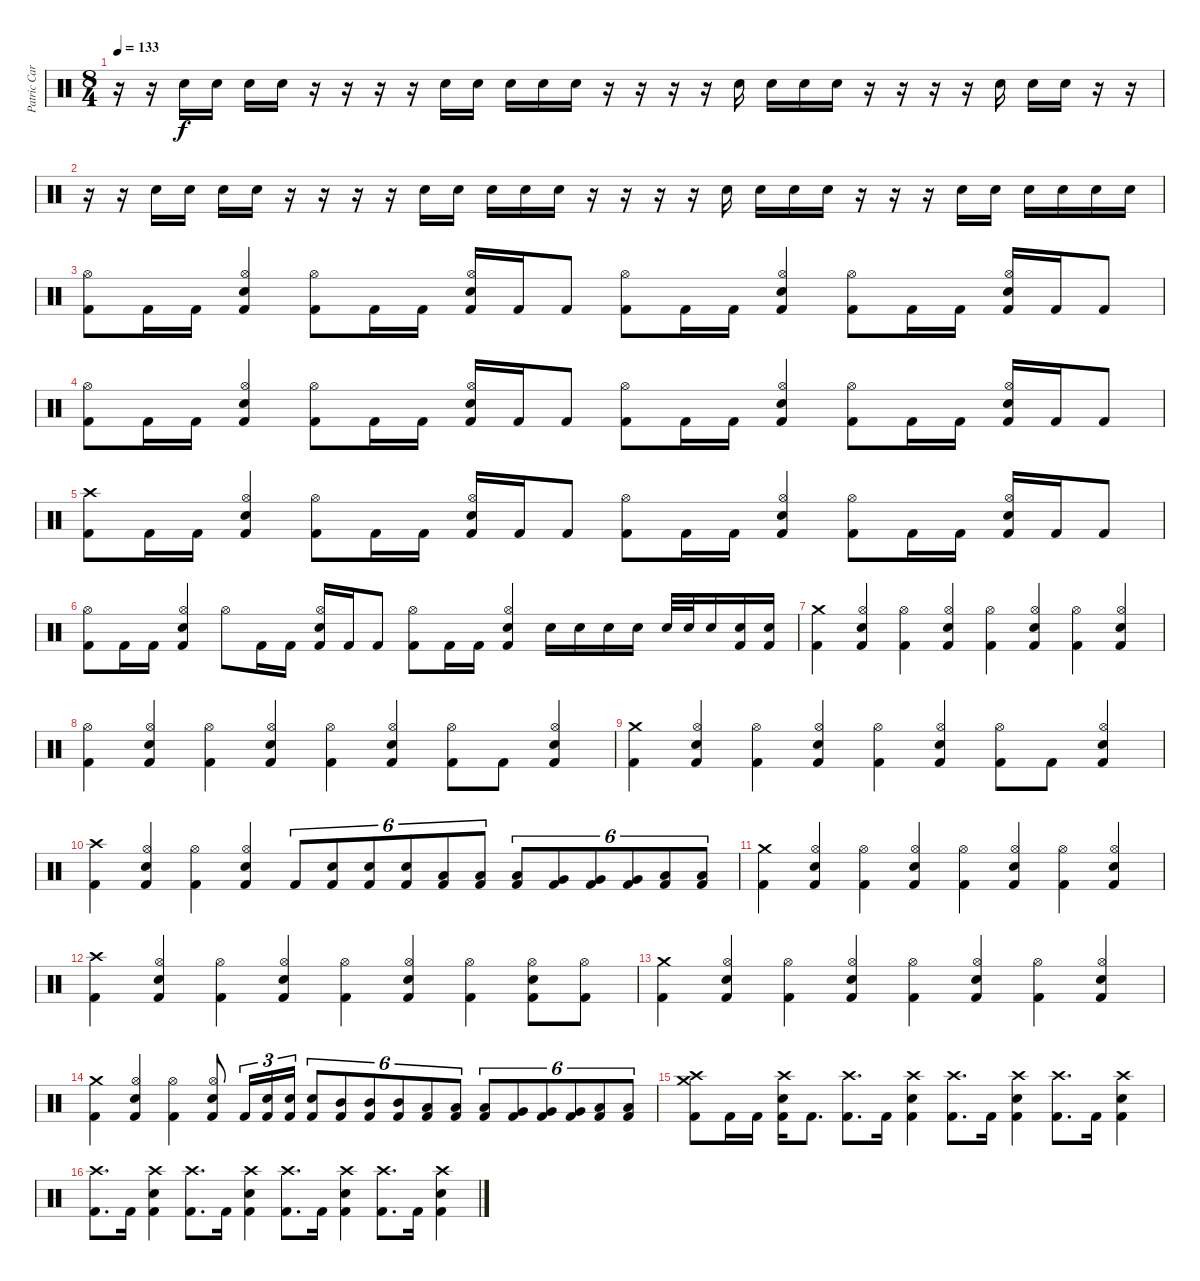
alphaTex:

\track ("Patric Carlsson" "Patric Car") {instrument percussion}
\staff {score}
\articulation defaults
\ts (8 4)
\tempo 133
\clef neutral
\ks c
r.16{dy f} r.16 "Snare (hit) 2".16 "Snare (hit) 2".16 "Snare (hit) 2".16 "Snare (hit) 2".16 r.16 r.16 r.16 r.16 "Snare (hit) 2".16 "Snare (hit) 2".16 "Snare (hit) 2".16 "Snare (hit) 2".16 "Snare (hit) 2".16 r.16 r.16 r.16 r.16 "Snare (hit) 2".16 "Snare (hit) 2".16 "Snare (hit) 2".16 "Snare (hit) 2".16 r.16 r.16 r.16 r.16 "Snare (hit) 2".16 "Snare (hit) 2".16 "Snare (hit) 2".16 r.16 r.16 |
r.16 r.16 "Snare (hit) 2".16 "Snare (hit) 2".16 "Snare (hit) 2".16 "Snare (hit) 2".16 r.16 r.16 r.16 r.16 "Snare (hit) 2".16 "Snare (hit) 2".16 "Snare (hit) 2".16 "Snare (hit) 2".16 "Snare (hit) 2".16 r.16 r.16 r.16 r.16 "Snare (hit) 2".16 "Snare (hit) 2".16 "Snare (hit) 2".16 "Snare (hit) 2".16 r.16 r.16 r.16 "Snare (hit) 2".16 "Snare (hit) 2".16 "Snare (hit) 2".16 "Snare (hit) 2".16 "Snare (hit) 2".16 "Snare (hit) 2".16 |
("Hi-Hat (open)" "Kick (hit) 2").8 "Kick (hit) 2".16 "Kick (hit) 2".16 ("Hi-Hat (open)" "Snare (hit) 2" "Kick (hit) 2").4 ("Hi-Hat (open)" "Kick (hit) 2").8 "Kick (hit) 2".16 "Kick (hit) 2".16 ("Hi-Hat (open)" "Snare (hit) 2" "Kick (hit) 2").16 "Kick (hit) 2".16 "Kick (hit) 2".8 ("Hi-Hat (open)" "Kick (hit) 2").8 "Kick (hit) 2".16 "Kick (hit) 2".16 ("Hi-Hat (open)" "Snare (hit) 2" "Kick (hit) 2").4 ("Hi-Hat (open)" "Kick (hit) 2").8 "Kick (hit) 2".16 "Kick (hit) 2".16 ("Hi-Hat (open)" "Snare (hit) 2" "Kick (hit) 2").16 "Kick (hit) 2".16 "Kick (hit) 2".8 |
("Hi-Hat (open)" "Kick (hit) 2").8 "Kick (hit) 2".16 "Kick (hit) 2".16 ("Hi-Hat (open)" "Snare (hit) 2" "Kick (hit) 2").4 ("Hi-Hat (open)" "Kick (hit) 2").8 "Kick (hit) 2".16 "Kick (hit) 2".16 ("Hi-Hat (open)" "Snare (hit) 2" "Kick (hit) 2").16 "Kick (hit) 2".16 "Kick (hit) 2".8 ("Hi-Hat (open)" "Kick (hit) 2").8 "Kick (hit) 2".16 "Kick (hit) 2".16 ("Hi-Hat (open)" "Snare (hit) 2" "Kick (hit) 2").4 ("Hi-Hat (open)" "Kick (hit) 2").8 "Kick (hit) 2".16 "Kick (hit) 2".16 ("Hi-Hat (open)" "Snare (hit) 2" "Kick (hit) 2").16 "Kick (hit) 2".16 "Kick (hit) 2".8 |
("Crash high (hit)" "Kick (hit) 2").8 "Kick (hit) 2".16 "Kick (hit) 2".16 ("Hi-Hat (open)" "Snare (hit) 2" "Kick (hit) 2").4 ("Hi-Hat (open)" "Kick (hit) 2").8 "Kick (hit) 2".16 "Kick (hit) 2".16 ("Hi-Hat (open)" "Snare (hit) 2" "Kick (hit) 2").16 "Kick (hit) 2".16 "Kick (hit) 2".8 ("Hi-Hat (open)" "Kick (hit) 2").8 "Kick (hit) 2".16 "Kick (hit) 2".16 ("Hi-Hat (open)" "Snare (hit) 2" "Kick (hit) 2").4 ("Hi-Hat (open)" "Kick (hit) 2").8 "Kick (hit) 2".16 "Kick (hit) 2".16 ("Hi-Hat (open)" "Snare (hit) 2" "Kick (hit) 2").16 "Kick (hit) 2".16 "Kick (hit) 2".8 |
("Hi-Hat (open)" "Kick (hit) 2").8 "Kick (hit) 2".16 "Kick (hit) 2".16 ("Hi-Hat (open)" "Snare (hit) 2" "Kick (hit) 2").4 "Hi-Hat (open)".8 "Kick (hit) 2".16 "Kick (hit) 2".16 ("Hi-Hat (open)" "Snare (hit) 2" "Kick (hit) 2").16 "Kick (hit) 2".16 "Kick (hit) 2".8 ("Hi-Hat (open)" "Kick (hit) 2").8 "Kick (hit) 2".16 "Kick (hit) 2".16 ("Hi-Hat (open)" "Snare (hit) 2" "Kick (hit) 2").4 "Snare (hit) 2".16 "Snare (hit) 2".16 "Snare (hit) 2".16 "Snare (hit) 2".16 "Snare (hit) 2".32 "Snare (hit) 2".32 "Snare (hit) 2".16 ("Snare (hit) 2" "Kick (hit) 2").16 ("Snare (hit) 2" "Kick (hit) 2").16 |
("Crash medium (hit)" "Kick (hit) 2").4 ("Hi-Hat (open)" "Snare (hit) 2" "Kick (hit) 2").4 ("Hi-Hat (open)" "Kick (hit) 2").4 ("Hi-Hat (open)" "Snare (hit) 2" "Kick (hit) 2").4 ("Hi-Hat (open)" "Kick (hit) 2").4 ("Hi-Hat (open)" "Snare (hit) 2" "Kick (hit) 2").4 ("Hi-Hat (open)" "Kick (hit) 2").4 ("Hi-Hat (open)" "Snare (hit) 2" "Kick (hit) 2").4 |
("Hi-Hat (open)" "Kick (hit) 2").4 ("Hi-Hat (open)" "Snare (hit) 2" "Kick (hit) 2").4 ("Hi-Hat (open)" "Kick (hit) 2").4 ("Hi-Hat (open)" "Snare (hit) 2" "Kick (hit) 2").4 ("Hi-Hat (open)" "Kick (hit) 2").4 ("Hi-Hat (open)" "Snare (hit) 2" "Kick (hit) 2").4 ("Hi-Hat (open)" "Kick (hit) 2").8 "Kick (hit) 2".8 ("Hi-Hat (open)" "Snare (hit) 2" "Kick (hit) 2").4 |
("Crash medium (hit)" "Kick (hit) 2").4 ("Hi-Hat (open)" "Snare (hit) 2" "Kick (hit) 2").4 ("Hi-Hat (open)" "Kick (hit) 2").4 ("Hi-Hat (open)" "Snare (hit) 2" "Kick (hit) 2").4 ("Hi-Hat (open)" "Kick (hit) 2").4 ("Hi-Hat (open)" "Snare (hit) 2" "Kick (hit) 2").4 ("Hi-Hat (open)" "Kick (hit) 2").8 "Kick (hit) 2".8 ("Hi-Hat (open)" "Snare (hit) 2" "Kick (hit) 2").4 |
("Crash high (hit)" "Kick (hit) 2").4 ("Hi-Hat (open)" "Snare (hit) 2" "Kick (hit) 2").4 ("Hi-Hat (open)" "Kick (hit) 2").4 ("Hi-Hat (open)" "Snare (hit) 2" "Kick (hit) 2").4 "Kick (hit) 2".8{tu (6 4)} ("Snare (hit) 2" "Kick (hit) 2").8{tu (6 4)} ("Snare (hit) 2" "Kick (hit) 2").8{tu (6 4)} ("Snare (hit) 2" "Kick (hit) 2").8{tu (6 4)} ("Low Tom (hit)" "Kick (hit) 2").8{tu (6 4)} ("Low Tom (hit)" "Kick (hit) 2").8{tu (6 4)} ("Low Tom (hit)" "Kick (hit) 2").8{tu (6 4)} ("Very Low Tom (hit)" "Kick (hit) 2").8{tu (6 4)} ("Very Low Tom (hit)" "Kick (hit) 2").8{tu (6 4)} ("Very Low Tom (hit)" "Kick (hit) 2").8{tu (6 4)} ("Low Floor Tom (hit)" "Kick (hit) 2").8{tu (6 4)} ("Low Floor Tom (hit)" "Kick (hit) 2").8{tu (6 4)} |
("Crash medium (hit)" "Kick (hit) 2").4 ("Hi-Hat (open)" "Snare (hit) 2" "Kick (hit) 2").4 ("Hi-Hat (open)" "Kick (hit) 2").4 ("Hi-Hat (open)" "Snare (hit) 2" "Kick (hit) 2").4 ("Hi-Hat (open)" "Kick (hit) 2").4 ("Hi-Hat (open)" "Snare (hit) 2" "Kick (hit) 2").4 ("Hi-Hat (open)" "Kick (hit) 2").4 ("Hi-Hat (open)" "Snare (hit) 2" "Kick (hit) 2").4 |
("Crash high (hit)" "Kick (hit) 2").4 ("Hi-Hat (open)" "Snare (hit) 2" "Kick (hit) 2").4 ("Hi-Hat (open)" "Kick (hit) 2").4 ("Hi-Hat (open)" "Snare (hit) 2" "Kick (hit) 2").4 ("Hi-Hat (open)" "Kick (hit) 2").4 ("Hi-Hat (open)" "Snare (hit) 2" "Kick (hit) 2").4 ("Hi-Hat (open)" "Kick (hit) 2").4 ("Hi-Hat (open)" "Snare (hit) 2" "Kick (hit) 2").8 ("Hi-Hat (open)" "Kick (hit) 2").8 |
("Crash medium (hit)" "Kick (hit) 2").4 ("Hi-Hat (open)" "Snare (hit) 2" "Kick (hit) 2").4 ("Hi-Hat (open)" "Kick (hit) 2").4 ("Hi-Hat (open)" "Snare (hit) 2" "Kick (hit) 2").4 ("Hi-Hat (open)" "Kick (hit) 2").4 ("Hi-Hat (open)" "Snare (hit) 2" "Kick (hit) 2").4 ("Hi-Hat (open)" "Kick (hit) 2").4 ("Hi-Hat (open)" "Snare (hit) 2" "Kick (hit) 2").4 |
("Crash medium (hit)" "Kick (hit) 2").4 ("Hi-Hat (open)" "Snare (hit) 2" "Kick (hit) 2").4 ("Hi-Hat (open)" "Kick (hit) 2").4 ("Hi-Hat (open)" "Snare (hit) 2" "Kick (hit) 2").8 "Kick (hit) 2".16{tu (3 2)} ("Snare (hit) 2" "Kick (hit) 2").16{tu (3 2)} ("Snare (hit) 2" "Kick (hit) 2").16{tu (3 2)} ("Snare (hit) 2" "Kick (hit) 2").8{tu (6 4)} ("Mid Tom (hit)" "Kick (hit) 2").8{tu (6 4)} ("Mid Tom (hit)" "Kick (hit) 2").8{tu (6 4)} ("Mid Tom (hit)" "Kick (hit) 2").8{tu (6 4)} ("Low Tom (hit)" "Kick (hit) 2").8{tu (6 4)} ("Low Tom (hit)" "Kick (hit) 2").8{tu (6 4)} ("Low Tom (hit)" "Kick (hit) 2").8{tu (6 4)} ("Very Low Tom (hit)" "Kick (hit) 2").8{tu (6 4)} ("Very Low Tom (hit)" "Kick (hit) 2").8{tu (6 4)} ("Very Low Tom (hit)" "Kick (hit) 2").8{tu (6 4)} ("Low Floor Tom (hit)" "Kick (hit) 2").8{tu (6 4)} ("Low Floor Tom (hit)" "Kick (hit) 2").8{tu (6 4)} |
("Crash medium (hit)" "Crash high (hit)" "Kick (hit) 2").8 "Kick (hit) 2".16 "Kick (hit) 2".16 ("Crash high (hit)" "Snare (hit) 2" "Kick (hit) 2").16 "Kick (hit) 2".8{d} ("Crash high (hit)" "Kick (hit) 2").8{d} "Kick (hit) 2".16 ("Crash high (hit)" "Snare (hit) 2" "Kick (hit) 2").4 ("Crash high (hit)" "Kick (hit) 2").8{d} "Kick (hit) 2".16 ("Crash high (hit)" "Snare (hit) 2" "Kick (hit) 2").4 ("Crash high (hit)" "Kick (hit) 2").8{d} "Kick (hit) 2".16 ("Crash high (hit)" "Snare (hit) 2" "Kick (hit) 2").4 |
("Crash high (hit)" "Kick (hit) 2").8{d} "Kick (hit) 2".16 ("Crash high (hit)" "Snare (hit) 2" "Kick (hit) 2").4 ("Crash high (hit)" "Kick (hit) 2").8{d} "Kick (hit) 2".16 ("Crash high (hit)" "Snare (hit) 2" "Kick (hit) 2").4 ("Crash high (hit)" "Kick (hit) 2").8{d} "Kick (hit) 2".16 ("Crash high (hit)" "Snare (hit) 2" "Kick (hit) 2").4 ("Crash high (hit)" "Kick (hit) 2").8{d} "Kick (hit) 2".16 ("Crash high (hit)" "Snare (hit) 2" "Kick (hit) 2").4
